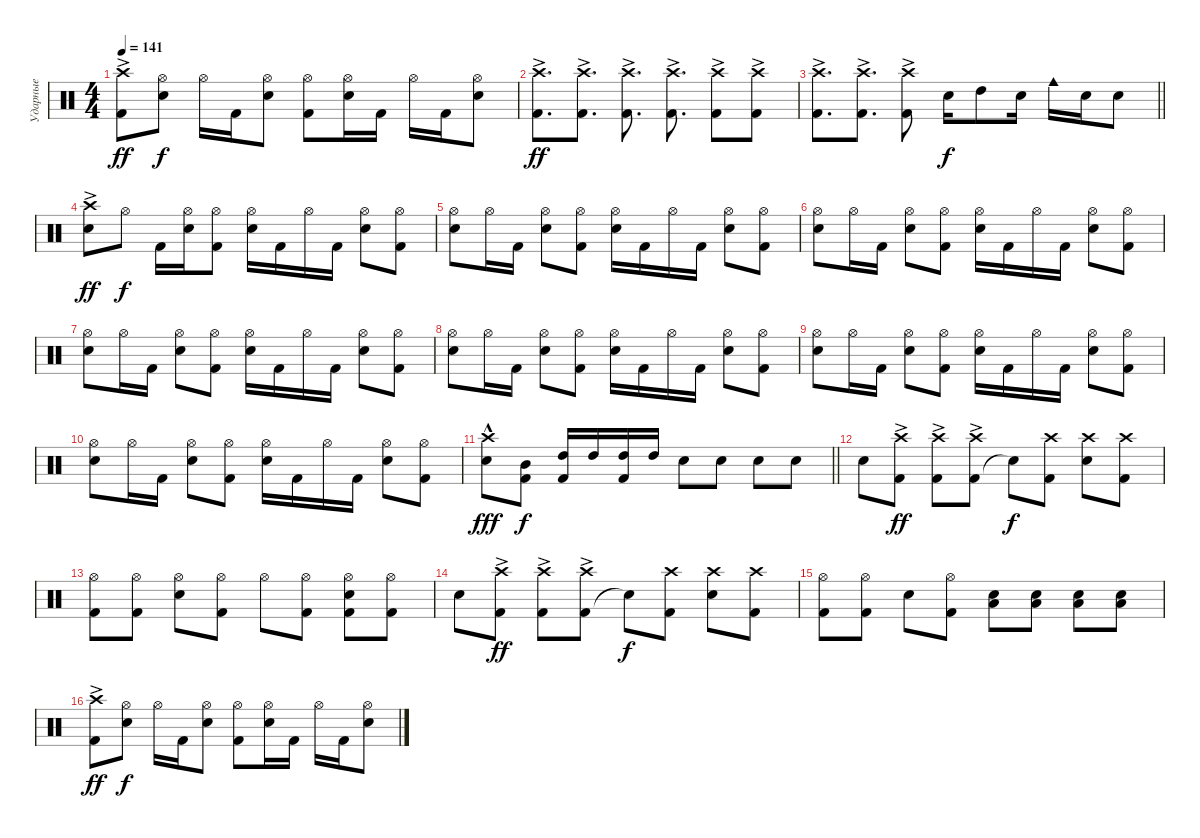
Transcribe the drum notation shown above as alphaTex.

\track ("Ударные" "Ударные") {instrument percussion}
\staff
\articulation defaults
\ts (4 4)
\tempo 141
\clef neutral
\ks c
("Kick (hit) 2" "Crash high (hit)"{ac}).8{dy ff} ("Snare (hit) 2" "Hi-Hat (open)").8{dy f} "Hi-Hat (open)".16 "Kick (hit) 2".16 ("Snare (hit) 2" "Hi-Hat (open)").8 ("Kick (hit) 2" "Hi-Hat (open)").8 ("Snare (hit) 2" "Hi-Hat (open)").16 "Kick (hit) 2".16 "Hi-Hat (open)".16 "Kick (hit) 2".16 ("Snare (hit) 2" "Hi-Hat (open)").8 |
("Kick (hit) 2" "Crash high (hit)"{ac}).8{d dy ff} ("Kick (hit) 2" "Crash high (hit)"{ac}).8{d} ("Kick (hit) 2" "Crash high (hit)"{ac}).8{d} ("Kick (hit) 2" "Crash high (hit)"{ac}).8{d} ("Kick (hit) 2" "Crash high (hit)"{ac}).8 ("Kick (hit) 2" "Crash high (hit)"{ac}).8 |
\barLineRight lightlight
("Kick (hit) 2" "Crash high (hit)"{ac}).8{d} ("Kick (hit) 2" "Crash high (hit)"{ac}).8{d} ("Kick (hit) 2" "Crash high (hit)"{ac}).8 "Snare (hit) 2".16{dy f} "High Tom (hit)".8 "Snare (hit) 2".16 "Cowbell medium (hit)".16 "Snare (hit) 2".16 "Snare (hit) 2".8 |
("Snare (hit) 2" "Crash high (hit)"{ac}).8{dy ff} "Hi-Hat (open)".8{dy f} "Kick (hit) 2".16 ("Snare (hit) 2" "Hi-Hat (open)").16 ("Kick (hit) 2" "Hi-Hat (open)").8 ("Snare (hit) 2" "Hi-Hat (open)").16 "Kick (hit) 2".16 "Hi-Hat (open)".16 "Kick (hit) 2".16 ("Snare (hit) 2" "Hi-Hat (open)").8 ("Kick (hit) 2" "Hi-Hat (open)").8 |
("Snare (hit) 2" "Hi-Hat (open)").8 "Hi-Hat (open)".16 "Kick (hit) 2".16 ("Snare (hit) 2" "Hi-Hat (open)").8 ("Kick (hit) 2" "Hi-Hat (open)").8 ("Snare (hit) 2" "Hi-Hat (open)").16 "Kick (hit) 2".16 "Hi-Hat (open)".16 "Kick (hit) 2".16 ("Snare (hit) 2" "Hi-Hat (open)").8 ("Kick (hit) 2" "Hi-Hat (open)").8 |
("Snare (hit) 2" "Hi-Hat (open)").8 "Hi-Hat (open)".16 "Kick (hit) 2".16 ("Snare (hit) 2" "Hi-Hat (open)").8 ("Kick (hit) 2" "Hi-Hat (open)").8 ("Snare (hit) 2" "Hi-Hat (open)").16 "Kick (hit) 2".16 "Hi-Hat (open)".16 "Kick (hit) 2".16 ("Snare (hit) 2" "Hi-Hat (open)").8 ("Kick (hit) 2" "Hi-Hat (open)").8 |
("Snare (hit) 2" "Hi-Hat (open)").8 "Hi-Hat (open)".16 "Kick (hit) 2".16 ("Snare (hit) 2" "Hi-Hat (open)").8 ("Kick (hit) 2" "Hi-Hat (open)").8 ("Snare (hit) 2" "Hi-Hat (open)").16 "Kick (hit) 2".16 "Hi-Hat (open)".16 "Kick (hit) 2".16 ("Snare (hit) 2" "Hi-Hat (open)").8 ("Kick (hit) 2" "Hi-Hat (open)").8 |
("Snare (hit) 2" "Hi-Hat (open)").8 "Hi-Hat (open)".16 "Kick (hit) 2".16 ("Snare (hit) 2" "Hi-Hat (open)").8 ("Kick (hit) 2" "Hi-Hat (open)").8 ("Snare (hit) 2" "Hi-Hat (open)").16 "Kick (hit) 2".16 "Hi-Hat (open)".16 "Kick (hit) 2".16 ("Snare (hit) 2" "Hi-Hat (open)").8 ("Kick (hit) 2" "Hi-Hat (open)").8 |
("Snare (hit) 2" "Hi-Hat (open)").8 "Hi-Hat (open)".16 "Kick (hit) 2".16 ("Snare (hit) 2" "Hi-Hat (open)").8 ("Kick (hit) 2" "Hi-Hat (open)").8 ("Snare (hit) 2" "Hi-Hat (open)").16 "Kick (hit) 2".16 "Hi-Hat (open)".16 "Kick (hit) 2".16 ("Snare (hit) 2" "Hi-Hat (open)").8 ("Kick (hit) 2" "Hi-Hat (open)").8 |
("Snare (hit) 2" "Hi-Hat (open)").8 "Hi-Hat (open)".16 "Kick (hit) 2".16 ("Snare (hit) 2" "Hi-Hat (open)").8 ("Kick (hit) 2" "Hi-Hat (open)").8 ("Snare (hit) 2" "Hi-Hat (open)").16 "Kick (hit) 2".16 "Hi-Hat (open)".16 "Kick (hit) 2".16 ("Snare (hit) 2" "Hi-Hat (open)").8 ("Kick (hit) 2" "Hi-Hat (open)").8 |
\barLineRight lightlight
("Snare (hit) 2" "Crash high (hit)"{hac}).8{dy fff} ("Kick (hit) 2" "Mid Tom (hit)").8{dy f} ("Kick (hit) 2" "High Tom (hit)").16 "High Tom (hit)".16 ("Kick (hit) 2" "High Tom (hit)").16 "High Tom (hit)".16 "Snare (hit) 2".8 "Snare (hit) 2".8 "Snare (hit) 2".8 "Snare (hit) 2".8 |
"Snare (hit) 2".8 ("Kick (hit) 2" "Crash high (hit)"{ac}).8{dy ff} ("Kick (hit) 2" "Crash high (hit)"{ac}).8 ("Kick (hit) 2" "Crash high (hit)"{ac}).8 "Snare (hit)"{t}.8{dy f} ("Kick (hit) 2" "Crash high (hit)").8 ("Snare (hit) 2" "Crash high (hit)").8 ("Kick (hit) 2" "Crash high (hit)").8 |
("Kick (hit) 2" "Hi-Hat (open)").8 ("Kick (hit) 2" "Hi-Hat (open)").8 ("Snare (hit) 2" "Hi-Hat (open)").8 ("Kick (hit) 2" "Hi-Hat (open)").8 "Hi-Hat (open)".8 ("Kick (hit) 2" "Hi-Hat (open)").8 ("Kick (hit) 2" "Snare (hit) 2" "Hi-Hat (open)").8 ("Kick (hit) 2" "Hi-Hat (open)").8 |
"Snare (hit) 2".8 ("Kick (hit) 2" "Crash high (hit)"{ac}).8{dy ff} ("Kick (hit) 2" "Crash high (hit)"{ac}).8 ("Kick (hit) 2" "Crash high (hit)"{ac}).8 "Snare (hit)"{t}.8{dy f} ("Kick (hit) 2" "Crash high (hit)").8 ("Snare (hit) 2" "Crash high (hit)").8 ("Kick (hit) 2" "Crash high (hit)").8 |
("Kick (hit) 2" "Hi-Hat (open)").8 ("Kick (hit) 2" "Hi-Hat (open)").8 "Snare (hit) 2".8 ("Kick (hit) 2" "Hi-Hat (open)").8 ("Snare (hit) 2" "Low Tom (hit)").8 ("Snare (hit) 2" "Low Tom (hit)").8 ("Snare (hit) 2" "Low Tom (hit)").8 ("Snare (hit) 2" "Low Tom (hit)").8 |
("Kick (hit) 2" "Crash high (hit)"{ac}).8{dy ff} ("Snare (hit) 2" "Hi-Hat (open)").8{dy f} "Hi-Hat (open)".16 "Kick (hit) 2".16 ("Snare (hit) 2" "Hi-Hat (open)").8 ("Kick (hit) 2" "Hi-Hat (open)").8 ("Snare (hit) 2" "Hi-Hat (open)").16 "Kick (hit) 2".16 "Hi-Hat (open)".16 "Kick (hit) 2".16 ("Snare (hit) 2" "Hi-Hat (open)").8
